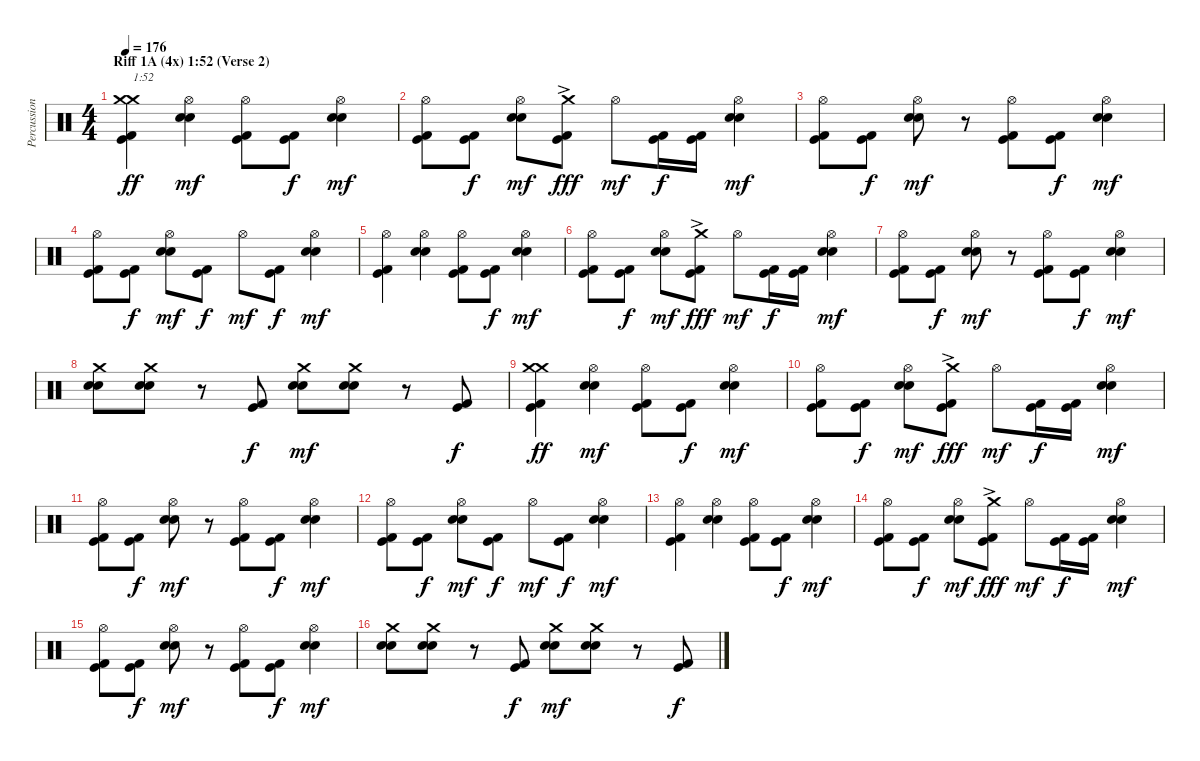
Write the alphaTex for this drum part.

\track ("Percussion" "Percussion") {instrument percussion}
\staff {score}
\articulation defaults
\ts (4 4)
\section ("" "Riff 1A (4x) 1:52 (Verse 2)")
\tempo 176
\clef neutral
\ks c
("Kick (hit) 2" "Kick (hit)" "Crash medium (hit)" "Crash medium (hit)").4{txt "1:52" dy ff} ("Electric Snare (hit)" "Snare (hit) 2" "Hi-Hat (open)").4{dy mf} ("Kick (hit) 2" "Kick (hit)" "Hi-Hat (open)").8 ("Kick (hit) 2" "Kick (hit)").8{dy f} ("Electric Snare (hit)" "Snare (hit) 2" "Hi-Hat (open)").4{dy mf} |
("Kick (hit) 2" "Kick (hit)" "Hi-Hat (open)").8 ("Kick (hit) 2" "Kick (hit)").8{dy f} ("Electric Snare (hit)" "Snare (hit) 2" "Hi-Hat (open)").8{dy mf} ("Kick (hit) 2" "Kick (hit)" "Crash medium (hit)"{ac}).8{dy fff} "Hi-Hat (open)".8{dy mf} ("Kick (hit) 2" "Kick (hit)").16{dy f} ("Kick (hit) 2" "Kick (hit)").16 ("Electric Snare (hit)" "Snare (hit) 2" "Hi-Hat (open)").4{dy mf} |
("Kick (hit) 2" "Kick (hit)" "Hi-Hat (open)").8 ("Kick (hit) 2" "Kick (hit)").8{dy f} ("Electric Snare (hit)" "Snare (hit) 2" "Hi-Hat (open)").8{dy mf} r.8 ("Kick (hit) 2" "Kick (hit)" "Hi-Hat (open)").8 ("Kick (hit) 2" "Kick (hit)").8{dy f} ("Electric Snare (hit)" "Snare (hit) 2" "Hi-Hat (open)").4{dy mf} |
("Kick (hit) 2" "Kick (hit)" "Hi-Hat (open)").8 ("Kick (hit) 2" "Kick (hit)").8{dy f} ("Electric Snare (hit)" "Snare (hit) 2" "Hi-Hat (open)").8{dy mf} ("Kick (hit) 2" "Kick (hit)").8{dy f} "Hi-Hat (open)".8{dy mf} ("Kick (hit) 2" "Kick (hit)").8{dy f} ("Electric Snare (hit)" "Snare (hit) 2" "Hi-Hat (open)").4{dy mf} |
("Kick (hit) 2" "Kick (hit)" "Hi-Hat (open)").4 ("Electric Snare (hit)" "Snare (hit) 2" "Hi-Hat (open)").4 ("Kick (hit) 2" "Kick (hit)" "Hi-Hat (open)").8 ("Kick (hit) 2" "Kick (hit)").8{dy f} ("Electric Snare (hit)" "Snare (hit) 2" "Hi-Hat (open)").4{dy mf} |
("Kick (hit) 2" "Kick (hit)" "Hi-Hat (open)").8 ("Kick (hit) 2" "Kick (hit)").8{dy f} ("Electric Snare (hit)" "Snare (hit) 2" "Hi-Hat (open)").8{dy mf} ("Kick (hit) 2" "Kick (hit)" "Crash medium (hit)"{ac}).8{dy fff} "Hi-Hat (open)".8{dy mf} ("Kick (hit) 2" "Kick (hit)").16{dy f} ("Kick (hit) 2" "Kick (hit)").16 ("Electric Snare (hit)" "Snare (hit) 2" "Hi-Hat (open)").4{dy mf} |
("Kick (hit) 2" "Kick (hit)" "Hi-Hat (open)").8 ("Kick (hit) 2" "Kick (hit)").8{dy f} ("Electric Snare (hit)" "Snare (hit) 2" "Hi-Hat (open)").8{dy mf} r.8 ("Kick (hit) 2" "Kick (hit)" "Hi-Hat (open)").8 ("Kick (hit) 2" "Kick (hit)").8{dy f} ("Electric Snare (hit)" "Snare (hit) 2" "Hi-Hat (open)").4{dy mf} |
("Electric Snare (hit)" "Snare (hit) 2" "Crash medium (hit)").8 ("Electric Snare (hit)" "Snare (hit) 2" "Crash medium (hit)").8 r.8 ("Kick (hit) 2" "Kick (hit)").8{dy f} ("Electric Snare (hit)" "Snare (hit) 2" "Crash medium (hit)").8{dy mf} ("Electric Snare (hit)" "Snare (hit) 2" "Crash medium (hit)").8 r.8 ("Kick (hit) 2" "Kick (hit)").8{dy f} |
("Kick (hit) 2" "Kick (hit)" "Crash medium (hit)" "Crash medium (hit)").4{dy ff} ("Electric Snare (hit)" "Snare (hit) 2" "Hi-Hat (open)").4{dy mf} ("Kick (hit) 2" "Kick (hit)" "Hi-Hat (open)").8 ("Kick (hit) 2" "Kick (hit)").8{dy f} ("Electric Snare (hit)" "Snare (hit) 2" "Hi-Hat (open)").4{dy mf} |
("Kick (hit) 2" "Kick (hit)" "Hi-Hat (open)").8 ("Kick (hit) 2" "Kick (hit)").8{dy f} ("Electric Snare (hit)" "Snare (hit) 2" "Hi-Hat (open)").8{dy mf} ("Kick (hit) 2" "Kick (hit)" "Crash medium (hit)"{ac}).8{dy fff} "Hi-Hat (open)".8{dy mf} ("Kick (hit) 2" "Kick (hit)").16{dy f} ("Kick (hit) 2" "Kick (hit)").16 ("Electric Snare (hit)" "Snare (hit) 2" "Hi-Hat (open)").4{dy mf} |
("Kick (hit) 2" "Kick (hit)" "Hi-Hat (open)").8 ("Kick (hit) 2" "Kick (hit)").8{dy f} ("Electric Snare (hit)" "Snare (hit) 2" "Hi-Hat (open)").8{dy mf} r.8 ("Kick (hit) 2" "Kick (hit)" "Hi-Hat (open)").8 ("Kick (hit) 2" "Kick (hit)").8{dy f} ("Electric Snare (hit)" "Snare (hit) 2" "Hi-Hat (open)").4{dy mf} |
("Kick (hit) 2" "Kick (hit)" "Hi-Hat (open)").8 ("Kick (hit) 2" "Kick (hit)").8{dy f} ("Electric Snare (hit)" "Snare (hit) 2" "Hi-Hat (open)").8{dy mf} ("Kick (hit) 2" "Kick (hit)").8{dy f} "Hi-Hat (open)".8{dy mf} ("Kick (hit) 2" "Kick (hit)").8{dy f} ("Electric Snare (hit)" "Snare (hit) 2" "Hi-Hat (open)").4{dy mf} |
("Kick (hit) 2" "Kick (hit)" "Hi-Hat (open)").4 ("Electric Snare (hit)" "Snare (hit) 2" "Hi-Hat (open)").4 ("Kick (hit) 2" "Kick (hit)" "Hi-Hat (open)").8 ("Kick (hit) 2" "Kick (hit)").8{dy f} ("Electric Snare (hit)" "Snare (hit) 2" "Hi-Hat (open)").4{dy mf} |
("Kick (hit) 2" "Kick (hit)" "Hi-Hat (open)").8 ("Kick (hit) 2" "Kick (hit)").8{dy f} ("Electric Snare (hit)" "Snare (hit) 2" "Hi-Hat (open)").8{dy mf} ("Kick (hit) 2" "Kick (hit)" "Crash medium (hit)"{ac}).8{dy fff} "Hi-Hat (open)".8{dy mf} ("Kick (hit) 2" "Kick (hit)").16{dy f} ("Kick (hit) 2" "Kick (hit)").16 ("Electric Snare (hit)" "Snare (hit) 2" "Hi-Hat (open)").4{dy mf} |
("Kick (hit) 2" "Kick (hit)" "Hi-Hat (open)").8 ("Kick (hit) 2" "Kick (hit)").8{dy f} ("Electric Snare (hit)" "Snare (hit) 2" "Hi-Hat (open)").8{dy mf} r.8 ("Kick (hit) 2" "Kick (hit)" "Hi-Hat (open)").8 ("Kick (hit) 2" "Kick (hit)").8{dy f} ("Electric Snare (hit)" "Snare (hit) 2" "Hi-Hat (open)").4{dy mf} |
("Electric Snare (hit)" "Snare (hit) 2" "Crash medium (hit)").8 ("Electric Snare (hit)" "Snare (hit) 2" "Crash medium (hit)").8 r.8 ("Kick (hit) 2" "Kick (hit)").8{dy f} ("Electric Snare (hit)" "Snare (hit) 2" "Crash medium (hit)").8{dy mf} ("Electric Snare (hit)" "Snare (hit) 2" "Crash medium (hit)").8 r.8 ("Kick (hit) 2" "Kick (hit)").8{dy f}
